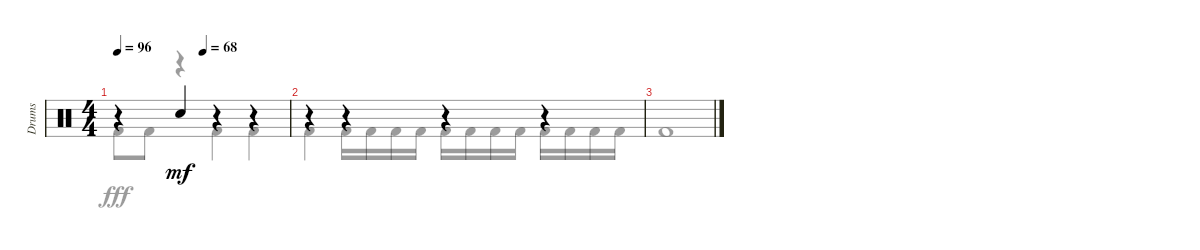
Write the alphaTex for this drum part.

\track ("Drums" "Drums") {instrument percussion}
\staff {score}
\articulation defaults
\voice
\ts (4 4)
\tempo 96
\tempo (68 0.5)
\clef neutral
\ks c
r.4{dy mf} "Snare (hit) 2".4 r.4 r.4 |
r.4 r.4 r.4 r.4 |
\voice
\clef neutral
\ottava regular
\simile none
\ks c "Kick (hit) 2".8{dy fff} "Kick (hit) 2".8
r.4 "Kick (hit) 2".4 "Kick (hit) 2".4 |
"Kick (hit) 2".4 "Kick (hit) 2".16 "Kick (hit) 2".16 "Kick (hit) 2".16 "Kick (hit) 2".16 "Kick (hit) 2".16 "Kick (hit) 2".16 "Kick (hit) 2".16 "Kick (hit) 2".16 "Kick (hit) 2".16 "Kick (hit) 2".16 "Kick (hit) 2".16 "Kick (hit) 2".16 |
"Kick (hit) 2".1
